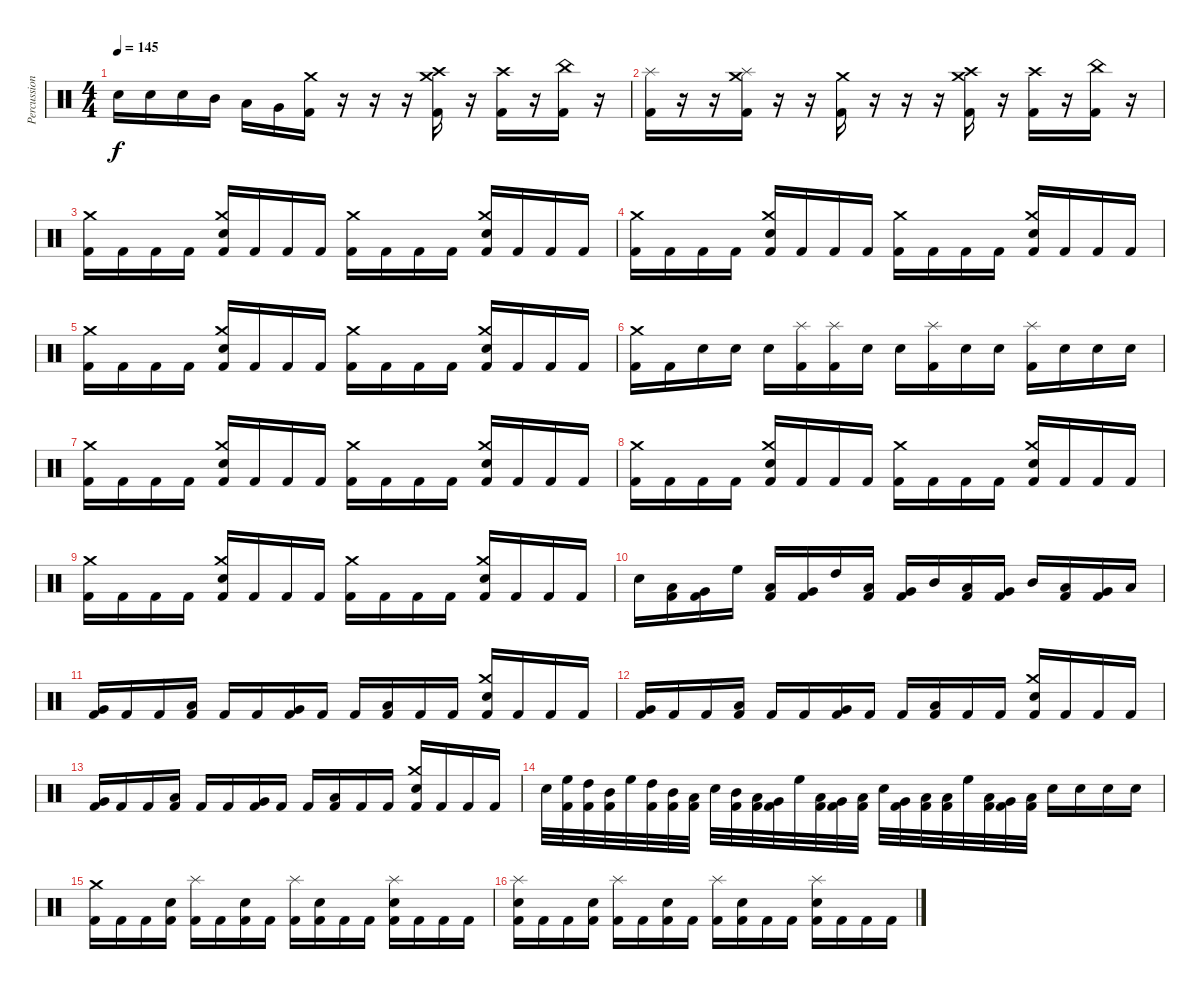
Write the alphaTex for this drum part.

\track ("Percussion" "Percussion") {instrument percussion}
\staff {score}
\articulation defaults
\ts (4 4)
\tempo 145
\clef neutral
\ks c "Electric Snare (hit)".16{dy f} "Electric Snare (hit)".16 "Electric Snare (hit)".16 "Mid Tom (hit)".16 "Low Tom (hit)".16 "Very Low Tom (hit)".16
("Crash medium (hit)" "Kick (hit) 2").16 r.16 r.16 r.16 ("Crash high (hit)" "Crash medium (hit)" "Kick (hit) 2").16 r.16 ("Crash high (hit)" "Kick (hit) 2").16 r.16 ("China (hit)" "Kick (hit) 2").16 r.16 |
("Splash (hit)" "Kick (hit) 2").16 r.16 r.16 ("Crash medium (hit)" "Splash (hit)" "Kick (hit) 2").16 r.16 r.16 ("Crash medium (hit)" "Kick (hit) 2").16 r.16 r.16 r.16 ("Crash high (hit)" "Crash medium (hit)" "Kick (hit) 2").16 r.16 ("Crash high (hit)" "Kick (hit) 2").16 r.16 ("China (hit)" "Kick (hit) 2").16 r.16 |
("Crash medium (hit)" "Kick (hit) 2").16 "Kick (hit) 2".16 "Kick (hit) 2".16 "Kick (hit) 2".16 ("Crash medium (hit)" "Electric Snare (hit)" "Kick (hit) 2").16 "Kick (hit) 2".16 "Kick (hit) 2".16 "Kick (hit) 2".16 ("Crash medium (hit)" "Kick (hit) 2").16 "Kick (hit) 2".16 "Kick (hit) 2".16 "Kick (hit) 2".16 ("Crash medium (hit)" "Electric Snare (hit)" "Kick (hit) 2").16 "Kick (hit) 2".16 "Kick (hit) 2".16 "Kick (hit) 2".16 |
("Crash medium (hit)" "Kick (hit) 2").16 "Kick (hit) 2".16 "Kick (hit) 2".16 "Kick (hit) 2".16 ("Crash medium (hit)" "Electric Snare (hit)" "Kick (hit) 2").16 "Kick (hit) 2".16 "Kick (hit) 2".16 "Kick (hit) 2".16 ("Crash medium (hit)" "Kick (hit) 2").16 "Kick (hit) 2".16 "Kick (hit) 2".16 "Kick (hit) 2".16 ("Crash medium (hit)" "Electric Snare (hit)" "Kick (hit) 2").16 "Kick (hit) 2".16 "Kick (hit) 2".16 "Kick (hit) 2".16 |
("Crash medium (hit)" "Kick (hit) 2").16 "Kick (hit) 2".16 "Kick (hit) 2".16 "Kick (hit) 2".16 ("Crash medium (hit)" "Electric Snare (hit)" "Kick (hit) 2").16 "Kick (hit) 2".16 "Kick (hit) 2".16 "Kick (hit) 2".16 ("Crash medium (hit)" "Kick (hit) 2").16 "Kick (hit) 2".16 "Kick (hit) 2".16 "Kick (hit) 2".16 ("Crash medium (hit)" "Electric Snare (hit)" "Kick (hit) 2").16 "Kick (hit) 2".16 "Kick (hit) 2".16 "Kick (hit) 2".16 |
("Crash medium (hit)" "Kick (hit) 2").16 "Kick (hit) 2".16 "Electric Snare (hit)".16 "Electric Snare (hit)".16 "Electric Snare (hit)".16 ("Splash (hit)" "Kick (hit) 2").16 ("Splash (hit)" "Kick (hit) 2").16 "Electric Snare (hit)".16 "Electric Snare (hit)".16 ("Splash (hit)" "Kick (hit) 2").16 "Electric Snare (hit)".16 "Electric Snare (hit)".16 ("Splash (hit)" "Kick (hit) 2").16 "Electric Snare (hit)".16 "Electric Snare (hit)".16 "Electric Snare (hit)".16 |
("Crash medium (hit)" "Kick (hit) 2").16 "Kick (hit) 2".16 "Kick (hit) 2".16 "Kick (hit) 2".16 ("Crash medium (hit)" "Electric Snare (hit)" "Kick (hit) 2").16 "Kick (hit) 2".16 "Kick (hit) 2".16 "Kick (hit) 2".16 ("Crash medium (hit)" "Kick (hit) 2").16 "Kick (hit) 2".16 "Kick (hit) 2".16 "Kick (hit) 2".16 ("Crash medium (hit)" "Electric Snare (hit)" "Kick (hit) 2").16 "Kick (hit) 2".16 "Kick (hit) 2".16 "Kick (hit) 2".16 |
("Crash medium (hit)" "Kick (hit) 2").16 "Kick (hit) 2".16 "Kick (hit) 2".16 "Kick (hit) 2".16 ("Crash medium (hit)" "Electric Snare (hit)" "Kick (hit) 2").16 "Kick (hit) 2".16 "Kick (hit) 2".16 "Kick (hit) 2".16 ("Crash medium (hit)" "Kick (hit) 2").16 "Kick (hit) 2".16 "Kick (hit) 2".16 "Kick (hit) 2".16 ("Crash medium (hit)" "Electric Snare (hit)" "Kick (hit) 2").16 "Kick (hit) 2".16 "Kick (hit) 2".16 "Kick (hit) 2".16 |
("Crash medium (hit)" "Kick (hit) 2").16 "Kick (hit) 2".16 "Kick (hit) 2".16 "Kick (hit) 2".16 ("Crash medium (hit)" "Electric Snare (hit)" "Kick (hit) 2").16 "Kick (hit) 2".16 "Kick (hit) 2".16 "Kick (hit) 2".16 ("Crash medium (hit)" "Kick (hit) 2").16 "Kick (hit) 2".16 "Kick (hit) 2".16 "Kick (hit) 2".16 ("Crash medium (hit)" "Electric Snare (hit)" "Kick (hit) 2").16 "Kick (hit) 2".16 "Kick (hit) 2".16 "Kick (hit) 2".16 |
"Electric Snare (hit)".16 ("Low Tom (hit)" "Kick (hit) 2").16 ("Very Low Tom (hit)" "Kick (hit) 2").16 "High Floor Tom (hit)".16 ("Low Tom (hit)" "Kick (hit) 2").16 ("Very Low Tom (hit)" "Kick (hit) 2").16 "High Tom (hit)".16 ("Low Tom (hit)" "Kick (hit) 2").16 ("Very Low Tom (hit)" "Kick (hit) 2").16 "Mid Tom (hit)".16 ("Low Tom (hit)" "Kick (hit) 2").16 ("Very Low Tom (hit)" "Kick (hit) 2").16 "Mid Tom (hit)".16 ("Low Tom (hit)" "Kick (hit) 2").16 ("Very Low Tom (hit)" "Kick (hit) 2").16 "Low Floor Tom (hit)".16 |
("Very Low Tom (hit)" "Kick (hit) 2").16 "Kick (hit) 2".16 "Kick (hit) 2".16 ("Low Floor Tom (hit)" "Kick (hit) 2").16 "Kick (hit) 2".16 "Kick (hit) 2".16 ("Very Low Tom (hit)" "Kick (hit) 2").16 "Kick (hit) 2".16 "Kick (hit) 2".16 ("Low Floor Tom (hit)" "Kick (hit) 2").16 "Kick (hit) 2".16 "Kick (hit) 2".16 ("Crash medium (hit)" "Electric Snare (hit)" "Kick (hit) 2").16 "Kick (hit) 2".16 "Kick (hit) 2".16 "Kick (hit) 2".16 |
("Very Low Tom (hit)" "Kick (hit) 2").16 "Kick (hit) 2".16 "Kick (hit) 2".16 ("Low Floor Tom (hit)" "Kick (hit) 2").16 "Kick (hit) 2".16 "Kick (hit) 2".16 ("Very Low Tom (hit)" "Kick (hit) 2").16 "Kick (hit) 2".16 "Kick (hit) 2".16 ("Low Floor Tom (hit)" "Kick (hit) 2").16 "Kick (hit) 2".16 "Kick (hit) 2".16 ("Crash medium (hit)" "Electric Snare (hit)" "Kick (hit) 2").16 "Kick (hit) 2".16 "Kick (hit) 2".16 "Kick (hit) 2".16 |
("Very Low Tom (hit)" "Kick (hit) 2").16 "Kick (hit) 2".16 "Kick (hit) 2".16 ("Low Floor Tom (hit)" "Kick (hit) 2").16 "Kick (hit) 2".16 "Kick (hit) 2".16 ("Very Low Tom (hit)" "Kick (hit) 2").16 "Kick (hit) 2".16 "Kick (hit) 2".16 ("Low Floor Tom (hit)" "Kick (hit) 2").16 "Kick (hit) 2".16 "Kick (hit) 2".16 ("Crash medium (hit)" "Electric Snare (hit)" "Kick (hit) 2").16 "Kick (hit) 2".16 "Kick (hit) 2".16 "Kick (hit) 2".16 |
"Electric Snare (hit)".32 ("High Floor Tom (hit)" "Kick (hit) 2").32 ("High Tom (hit)" "Kick (hit) 2").32 ("Mid Tom (hit)" "Kick (hit) 2").32 "High Floor Tom (hit)".32 ("High Tom (hit)" "Kick (hit) 2").32 ("Mid Tom (hit)" "Kick (hit) 2").32 ("Low Tom (hit)" "Kick (hit) 2").32 "Electric Snare (hit)".32 ("Mid Tom (hit)" "Kick (hit) 2").32 ("Low Tom (hit)" "Kick (hit) 2").32 ("Very Low Tom (hit)" "Kick (hit) 2").32 "High Floor Tom (hit)".32 ("Low Tom (hit)" "Kick (hit) 2").32 ("Very Low Tom (hit)" "Kick (hit) 2").32 ("Low Floor Tom (hit)" "Kick (hit) 2").32 "Electric Snare (hit)".32 ("Very Low Tom (hit)" "Kick (hit) 2").32 ("Low Tom (hit)" "Kick (hit) 2").32 ("Low Floor Tom (hit)" "Kick (hit) 2").32 "High Floor Tom (hit)".32 ("Low Floor Tom (hit)" "Kick (hit) 2").32 ("Very Low Tom (hit)" "Kick (hit) 2").32 ("Low Floor Tom (hit)" "Kick (hit) 2").32 "Electric Snare (hit)".16 "Electric Snare (hit)".16 "Electric Snare (hit)".16 "Electric Snare (hit)".16 |
("Crash medium (hit)" "Kick (hit) 2").16 "Kick (hit) 2".16 "Kick (hit) 2".16 ("Electric Snare (hit)" "Kick (hit) 2").16 ("Splash (hit)" "Kick (hit) 2").16 "Kick (hit) 2".16 ("Electric Snare (hit)" "Kick (hit) 2").16 "Kick (hit) 2".16 ("Splash (hit)" "Kick (hit) 2").16 ("Electric Snare (hit)" "Kick (hit) 2").16 "Kick (hit) 2".16 "Kick (hit) 2".16 ("Splash (hit)" "Electric Snare (hit)" "Kick (hit) 2").16 "Kick (hit) 2".16 "Kick (hit) 2".16 "Kick (hit) 2".16 |
("Splash (hit)" "Electric Snare (hit)" "Kick (hit) 2").16 "Kick (hit) 2".16 "Kick (hit) 2".16 ("Electric Snare (hit)" "Kick (hit) 2").16 ("Splash (hit)" "Kick (hit) 2").16 "Kick (hit) 2".16 ("Electric Snare (hit)" "Kick (hit) 2").16 "Kick (hit) 2".16 ("Splash (hit)" "Kick (hit) 2").16 ("Electric Snare (hit)" "Kick (hit) 2").16 "Kick (hit) 2".16 "Kick (hit) 2".16 ("Splash (hit)" "Electric Snare (hit)" "Kick (hit) 2").16 "Kick (hit) 2".16 "Kick (hit) 2".16 "Kick (hit) 2".16
